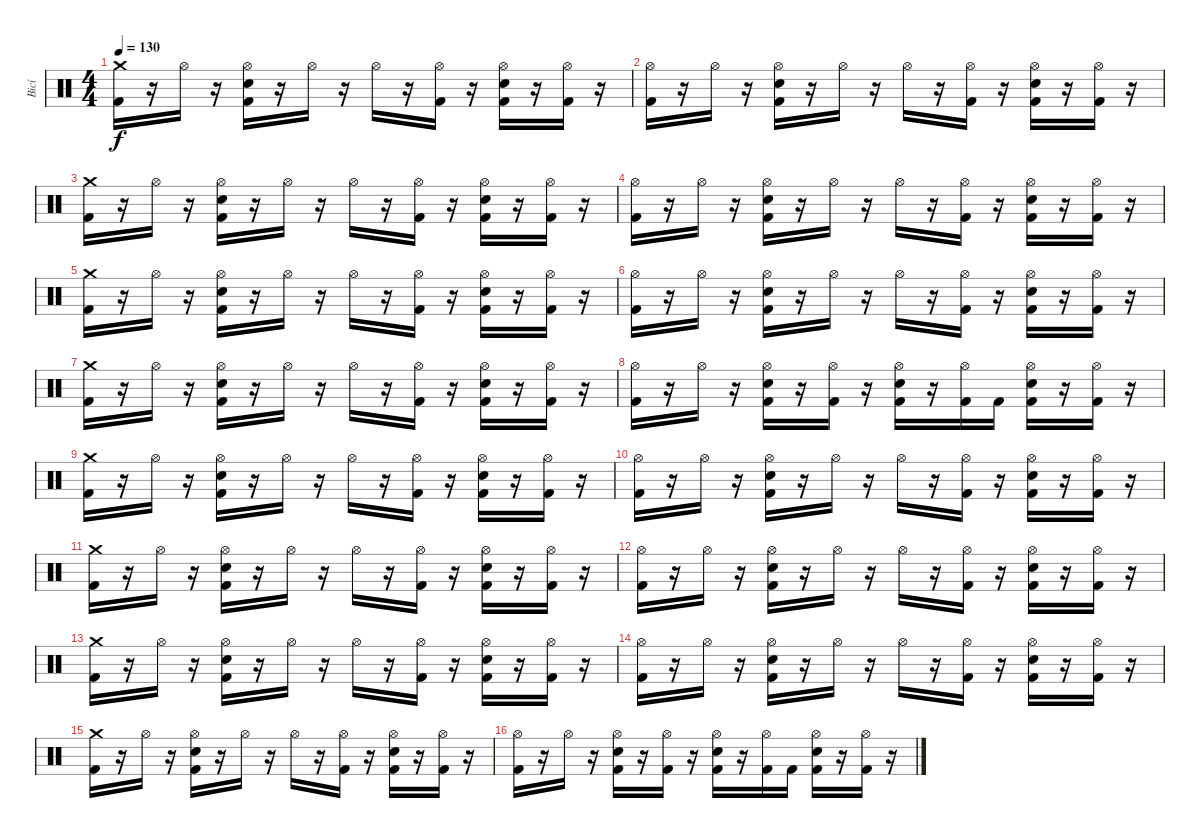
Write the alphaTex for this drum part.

\track ("Bicí" "Bicí") {instrument percussion}
\staff {score}
\articulation defaults
\ts (4 4)
\tempo 130
\clef neutral
\ks c
("Crash medium (hit)" "Kick (hit) 2").16{dy f} r.16 "Hi-Hat (open)".16 r.16 ("Hi-Hat (open)" "Electric Snare (hit)" "Kick (hit) 2").16 r.16 "Hi-Hat (open)".16 r.16 "Hi-Hat (open)".16 r.16 ("Hi-Hat (open)" "Kick (hit) 2").16 r.16 ("Hi-Hat (open)" "Electric Snare (hit)" "Kick (hit) 2").16 r.16 ("Hi-Hat (open)" "Kick (hit) 2").16 r.16 |
("Hi-Hat (open)" "Kick (hit) 2").16 r.16 "Hi-Hat (open)".16 r.16 ("Hi-Hat (open)" "Electric Snare (hit)" "Kick (hit) 2").16 r.16 "Hi-Hat (open)".16 r.16 "Hi-Hat (open)".16 r.16 ("Hi-Hat (open)" "Kick (hit) 2").16 r.16 ("Hi-Hat (open)" "Electric Snare (hit)" "Kick (hit) 2").16 r.16 ("Hi-Hat (open)" "Kick (hit) 2").16 r.16 |
("Crash medium (hit)" "Kick (hit) 2").16 r.16 "Hi-Hat (open)".16 r.16 ("Hi-Hat (open)" "Electric Snare (hit)" "Kick (hit) 2").16 r.16 "Hi-Hat (open)".16 r.16 "Hi-Hat (open)".16 r.16 ("Hi-Hat (open)" "Kick (hit) 2").16 r.16 ("Hi-Hat (open)" "Electric Snare (hit)" "Kick (hit) 2").16 r.16 ("Hi-Hat (open)" "Kick (hit) 2").16 r.16 |
("Hi-Hat (open)" "Kick (hit) 2").16 r.16 "Hi-Hat (open)".16 r.16 ("Hi-Hat (open)" "Electric Snare (hit)" "Kick (hit) 2").16 r.16 "Hi-Hat (open)".16 r.16 "Hi-Hat (open)".16 r.16 ("Hi-Hat (open)" "Kick (hit) 2").16 r.16 ("Hi-Hat (open)" "Electric Snare (hit)" "Kick (hit) 2").16 r.16 ("Hi-Hat (open)" "Kick (hit) 2").16 r.16 |
("Crash medium (hit)" "Kick (hit) 2").16 r.16 "Hi-Hat (open)".16 r.16 ("Hi-Hat (open)" "Electric Snare (hit)" "Kick (hit) 2").16 r.16 "Hi-Hat (open)".16 r.16 "Hi-Hat (open)".16 r.16 ("Hi-Hat (open)" "Kick (hit) 2").16 r.16 ("Hi-Hat (open)" "Electric Snare (hit)" "Kick (hit) 2").16 r.16 ("Hi-Hat (open)" "Kick (hit) 2").16 r.16 |
("Hi-Hat (open)" "Kick (hit) 2").16 r.16 "Hi-Hat (open)".16 r.16 ("Hi-Hat (open)" "Electric Snare (hit)" "Kick (hit) 2").16 r.16 "Hi-Hat (open)".16 r.16 "Hi-Hat (open)".16 r.16 ("Hi-Hat (open)" "Kick (hit) 2").16 r.16 ("Hi-Hat (open)" "Electric Snare (hit)" "Kick (hit) 2").16 r.16 ("Hi-Hat (open)" "Kick (hit) 2").16 r.16 |
("Crash medium (hit)" "Kick (hit) 2").16 r.16 "Hi-Hat (open)".16 r.16 ("Hi-Hat (open)" "Electric Snare (hit)" "Kick (hit) 2").16 r.16 "Hi-Hat (open)".16 r.16 "Hi-Hat (open)".16 r.16 ("Hi-Hat (open)" "Kick (hit) 2").16 r.16 ("Hi-Hat (open)" "Electric Snare (hit)" "Kick (hit) 2").16 r.16 ("Hi-Hat (open)" "Kick (hit) 2").16 r.16 |
("Hi-Hat (open)" "Kick (hit) 2").16 r.16 "Hi-Hat (open)".16 r.16 ("Hi-Hat (open)" "Electric Snare (hit)" "Kick (hit) 2").16 r.16 ("Hi-Hat (open)" "Kick (hit) 2").16 r.16 ("Hi-Hat (open)" "Electric Snare (hit)" "Kick (hit) 2").16 r.16 ("Hi-Hat (open)" "Kick (hit) 2").16 "Kick (hit) 2".16 ("Hi-Hat (open)" "Electric Snare (hit)" "Kick (hit) 2").16 r.16 ("Hi-Hat (open)" "Kick (hit) 2").16 r.16 |
("Crash medium (hit)" "Kick (hit) 2").16 r.16 "Hi-Hat (open)".16 r.16 ("Hi-Hat (open)" "Electric Snare (hit)" "Kick (hit) 2").16 r.16 "Hi-Hat (open)".16 r.16 "Hi-Hat (open)".16 r.16 ("Hi-Hat (open)" "Kick (hit) 2").16 r.16 ("Hi-Hat (open)" "Electric Snare (hit)" "Kick (hit) 2").16 r.16 ("Hi-Hat (open)" "Kick (hit) 2").16 r.16 |
("Hi-Hat (open)" "Kick (hit) 2").16 r.16 "Hi-Hat (open)".16 r.16 ("Hi-Hat (open)" "Electric Snare (hit)" "Kick (hit) 2").16 r.16 "Hi-Hat (open)".16 r.16 "Hi-Hat (open)".16 r.16 ("Hi-Hat (open)" "Kick (hit) 2").16 r.16 ("Hi-Hat (open)" "Electric Snare (hit)" "Kick (hit) 2").16 r.16 ("Hi-Hat (open)" "Kick (hit) 2").16 r.16 |
("Crash medium (hit)" "Kick (hit) 2").16 r.16 "Hi-Hat (open)".16 r.16 ("Hi-Hat (open)" "Electric Snare (hit)" "Kick (hit) 2").16 r.16 "Hi-Hat (open)".16 r.16 "Hi-Hat (open)".16 r.16 ("Hi-Hat (open)" "Kick (hit) 2").16 r.16 ("Hi-Hat (open)" "Electric Snare (hit)" "Kick (hit) 2").16 r.16 ("Hi-Hat (open)" "Kick (hit) 2").16 r.16 |
("Hi-Hat (open)" "Kick (hit) 2").16 r.16 "Hi-Hat (open)".16 r.16 ("Hi-Hat (open)" "Electric Snare (hit)" "Kick (hit) 2").16 r.16 "Hi-Hat (open)".16 r.16 "Hi-Hat (open)".16 r.16 ("Hi-Hat (open)" "Kick (hit) 2").16 r.16 ("Hi-Hat (open)" "Electric Snare (hit)" "Kick (hit) 2").16 r.16 ("Hi-Hat (open)" "Kick (hit) 2").16 r.16 |
("Crash medium (hit)" "Kick (hit) 2").16 r.16 "Hi-Hat (open)".16 r.16 ("Hi-Hat (open)" "Electric Snare (hit)" "Kick (hit) 2").16 r.16 "Hi-Hat (open)".16 r.16 "Hi-Hat (open)".16 r.16 ("Hi-Hat (open)" "Kick (hit) 2").16 r.16 ("Hi-Hat (open)" "Electric Snare (hit)" "Kick (hit) 2").16 r.16 ("Hi-Hat (open)" "Kick (hit) 2").16 r.16 |
("Hi-Hat (open)" "Kick (hit) 2").16 r.16 "Hi-Hat (open)".16 r.16 ("Hi-Hat (open)" "Electric Snare (hit)" "Kick (hit) 2").16 r.16 "Hi-Hat (open)".16 r.16 "Hi-Hat (open)".16 r.16 ("Hi-Hat (open)" "Kick (hit) 2").16 r.16 ("Hi-Hat (open)" "Electric Snare (hit)" "Kick (hit) 2").16 r.16 ("Hi-Hat (open)" "Kick (hit) 2").16 r.16 |
("Crash medium (hit)" "Kick (hit) 2").16 r.16 "Hi-Hat (open)".16 r.16 ("Hi-Hat (open)" "Electric Snare (hit)" "Kick (hit) 2").16 r.16 "Hi-Hat (open)".16 r.16 "Hi-Hat (open)".16 r.16 ("Hi-Hat (open)" "Kick (hit) 2").16 r.16 ("Hi-Hat (open)" "Electric Snare (hit)" "Kick (hit) 2").16 r.16 ("Hi-Hat (open)" "Kick (hit) 2").16 r.16 |
("Hi-Hat (open)" "Kick (hit) 2").16 r.16 "Hi-Hat (open)".16 r.16 ("Hi-Hat (open)" "Electric Snare (hit)" "Kick (hit) 2").16 r.16 ("Hi-Hat (open)" "Kick (hit) 2").16 r.16 ("Hi-Hat (open)" "Electric Snare (hit)" "Kick (hit) 2").16 r.16 ("Hi-Hat (open)" "Kick (hit) 2").16 "Kick (hit) 2".16 ("Hi-Hat (open)" "Electric Snare (hit)" "Kick (hit) 2").16 r.16 ("Hi-Hat (open)" "Kick (hit) 2").16 r.16
